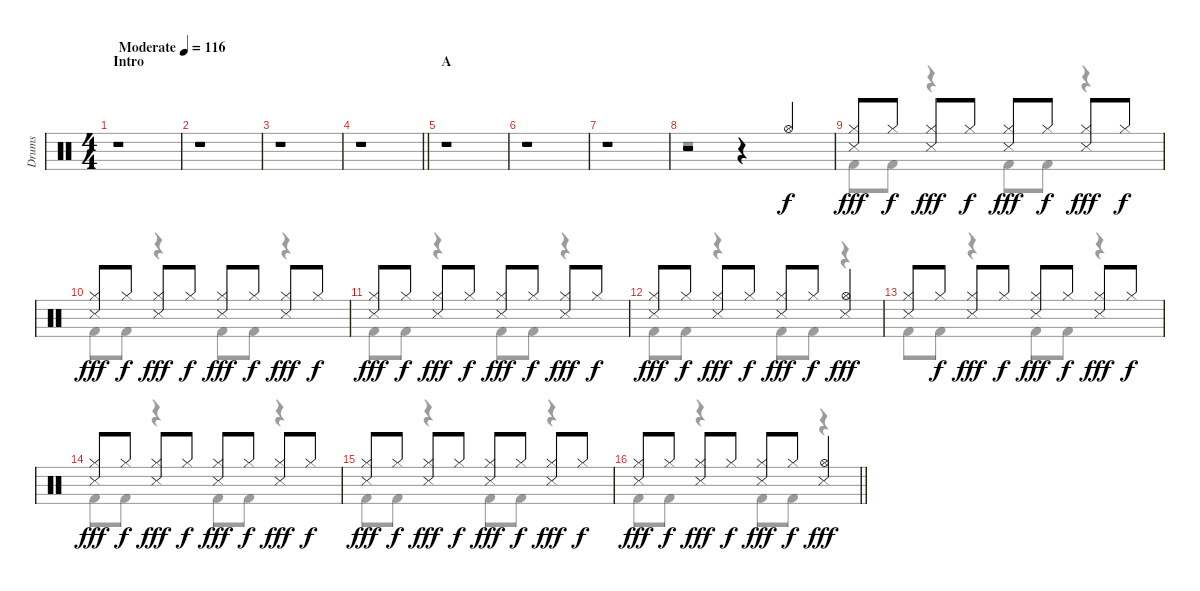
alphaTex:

\track ("Drums" "Drums") {instrument percussion}
\staff {score}
\articulation defaults
\voice
\ts (4 4)
\section ("" "Intro")
\tempo (116 "Moderate")
\clef neutral
\ks c
r.1{dy f} |
r.1 |
r.1 |
\barLineRight lightlight
r.1 |
\section ("" "A")
r.1 |
r.1 |
r.1 |
r.2 r.4 "Hi-Hat (open)".4 |
("Hi-Hat (closed)" "Snare (side stick) 3").8{dy fff} "Hi-Hat (closed)".8{dy f} ("Hi-Hat (closed)" "Snare (side stick) 3").8{dy fff} "Hi-Hat (closed)".8{dy f} ("Hi-Hat (closed)" "Snare (side stick) 3").8{dy fff} "Hi-Hat (closed)".8{dy f} ("Hi-Hat (closed)" "Snare (side stick) 3").8{dy fff} "Hi-Hat (closed)".8{dy f} |
("Hi-Hat (closed)" "Snare (side stick) 3").8{dy fff} "Hi-Hat (closed)".8{dy f} ("Hi-Hat (closed)" "Snare (side stick) 3").8{dy fff} "Hi-Hat (closed)".8{dy f} ("Hi-Hat (closed)" "Snare (side stick) 3").8{dy fff} "Hi-Hat (closed)".8{dy f} ("Hi-Hat (closed)" "Snare (side stick) 3").8{dy fff} "Hi-Hat (closed)".8{dy f} |
("Hi-Hat (closed)" "Snare (side stick) 3").8{dy fff} "Hi-Hat (closed)".8{dy f} ("Hi-Hat (closed)" "Snare (side stick) 3").8{dy fff} "Hi-Hat (closed)".8{dy f} ("Hi-Hat (closed)" "Snare (side stick) 3").8{dy fff} "Hi-Hat (closed)".8{dy f} ("Hi-Hat (closed)" "Snare (side stick) 3").8{dy fff} "Hi-Hat (closed)".8{dy f} |
("Hi-Hat (closed)" "Snare (side stick) 3").8{dy fff} "Hi-Hat (closed)".8{dy f} ("Hi-Hat (closed)" "Snare (side stick) 3").8{dy fff} "Hi-Hat (closed)".8{dy f} ("Hi-Hat (closed)" "Snare (side stick) 3").8{dy fff} "Hi-Hat (closed)".8{dy f} ("Hi-Hat (open)" "Snare (side stick) 3").4{dy fff} |
("Hi-Hat (closed)" "Snare (side stick) 3").8 "Hi-Hat (closed)".8{dy f} ("Hi-Hat (closed)" "Snare (side stick) 3").8{dy fff} "Hi-Hat (closed)".8{dy f} ("Hi-Hat (closed)" "Snare (side stick) 3").8{dy fff} "Hi-Hat (closed)".8{dy f} ("Hi-Hat (closed)" "Snare (side stick) 3").8{dy fff} "Hi-Hat (closed)".8{dy f} |
("Hi-Hat (closed)" "Snare (side stick) 3").8{dy fff} "Hi-Hat (closed)".8{dy f} ("Hi-Hat (closed)" "Snare (side stick) 3").8{dy fff} "Hi-Hat (closed)".8{dy f} ("Hi-Hat (closed)" "Snare (side stick) 3").8{dy fff} "Hi-Hat (closed)".8{dy f} ("Hi-Hat (closed)" "Snare (side stick) 3").8{dy fff} "Hi-Hat (closed)".8{dy f} |
("Hi-Hat (closed)" "Snare (side stick) 3").8{dy fff} "Hi-Hat (closed)".8{dy f} ("Hi-Hat (closed)" "Snare (side stick) 3").8{dy fff} "Hi-Hat (closed)".8{dy f} ("Hi-Hat (closed)" "Snare (side stick) 3").8{dy fff} "Hi-Hat (closed)".8{dy f} ("Hi-Hat (closed)" "Snare (side stick) 3").8{dy fff} "Hi-Hat (closed)".8{dy f} |
\barLineRight lightlight
("Hi-Hat (closed)" "Snare (side stick) 3").8{dy fff} "Hi-Hat (closed)".8{dy f} ("Hi-Hat (closed)" "Snare (side stick) 3").8{dy fff} "Hi-Hat (closed)".8{dy f} ("Hi-Hat (closed)" "Snare (side stick) 3").8{dy fff} "Hi-Hat (closed)".8{dy f} ("Hi-Hat (open)" "Snare (side stick) 3").4{dy fff}
\voice
\clef neutral
\ottava regular
\simile none
\ks c
r.1{dy fff} |
r.1 |
r.1 |
\barLineRight lightlight
r.1 |
r.1 |
r.1 |
r.1 |
r.1 |
"Kick (hit) 2".8 "Kick (hit) 2".8 r.4 "Kick (hit) 2".8 "Kick (hit) 2".8 r.4 |
"Kick (hit) 2".8 "Kick (hit) 2".8 r.4 "Kick (hit) 2".8 "Kick (hit) 2".8 r.4 |
"Kick (hit) 2".8 "Kick (hit) 2".8 r.4 "Kick (hit) 2".8 "Kick (hit) 2".8 r.4 |
"Kick (hit) 2".8 "Kick (hit) 2".8 r.4 "Kick (hit) 2".8 "Kick (hit) 2".8 r.4 |
"Kick (hit) 2".8 "Kick (hit) 2".8 r.4 "Kick (hit) 2".8 "Kick (hit) 2".8 r.4 |
"Kick (hit) 2".8 "Kick (hit) 2".8 r.4 "Kick (hit) 2".8 "Kick (hit) 2".8 r.4 |
"Kick (hit) 2".8 "Kick (hit) 2".8 r.4 "Kick (hit) 2".8 "Kick (hit) 2".8 r.4 |
\barLineRight lightlight "Kick (hit) 2".8 "Kick (hit) 2".8
r.4 "Kick (hit) 2".8 "Kick (hit) 2".8 r.4
